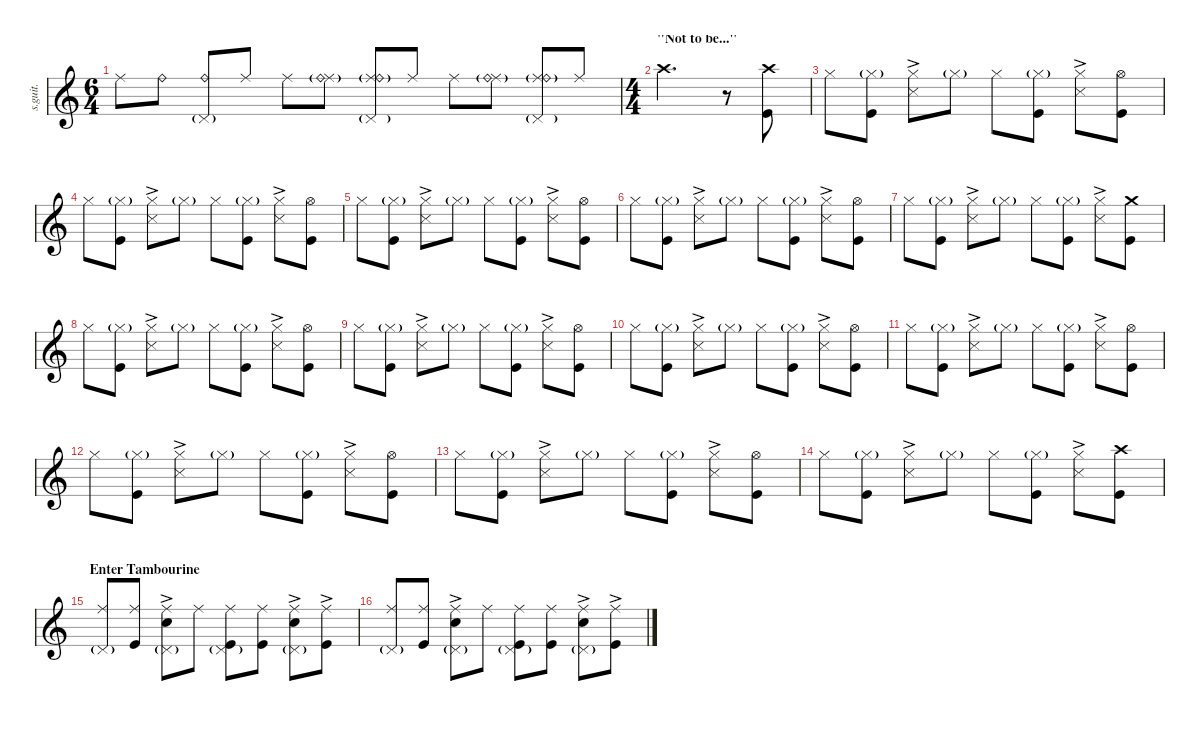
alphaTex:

\defaultSystemsLayout 4
\hideDynamics
\bracketExtendMode nobrackets
\track ("Steve Lamos" "s.guit.") {instrument percussion}
\staff {score}
\articulation defaults
\ts (6 4)
\tempo (144 hide)
\clef g2
\ks c "Ride (middle)".8{lyrics (0 "") lyrics (1 "") lyrics (2 "") lyrics (3 "") lyrics (4 "") dy f} "Ride (bell)".8{lyrics (0 "") lyrics (1 "") lyrics (2 "") lyrics (3 "") lyrics (4 "")}
("Pedal Hi-Hat (hit)"{g} "Ride (bell)").8{lyrics (0 "") lyrics (1 "") lyrics (2 "") lyrics (3 "") lyrics (4 "")} "Ride (middle)".8{lyrics (0 "") lyrics (1 "") lyrics (2 "") lyrics (3 "") lyrics (4 "")} "Ride (middle)".8{lyrics (0 "") lyrics (1 "") lyrics (2 "") lyrics (3 "") lyrics (4 "")} ("Ride (middle)"{g} "Ride (bell)").8{lyrics (0 "") lyrics (1 "") lyrics (2 "") lyrics (3 "") lyrics (4 "")} ("Ride (middle)"{g} "Ride (bell)" "Pedal Hi-Hat (hit)"{g}).8{lyrics (0 "") lyrics (1 "") lyrics (2 "") lyrics (3 "") lyrics (4 "")} "Ride (middle)".8{lyrics (0 "") lyrics (1 "") lyrics (2 "") lyrics (3 "") lyrics (4 "")} "Ride (middle)".8{lyrics (0 "") lyrics (1 "") lyrics (2 "") lyrics (3 "") lyrics (4 "")} ("Ride (middle)"{g} "Ride (bell)").8{lyrics (0 "") lyrics (1 "") lyrics (2 "") lyrics (3 "") lyrics (4 "")} ("Ride (middle)"{g} "Ride (bell)" "Pedal Hi-Hat (hit)"{g}).8{lyrics (0 "") lyrics (1 "") lyrics (2 "") lyrics (3 "") lyrics (4 "")} "Ride (middle)".8{lyrics (0 "") lyrics (1 "") lyrics (2 "") lyrics (3 "") lyrics (4 "")} |
\ts (4 4)
\beaming (8 2 2 2 2)
\section ("" "\"Not to be...\"")
"Crash high (hit)".2{d lyrics (0 "") lyrics (1 "") lyrics (2 "") lyrics (3 "") lyrics (4 "") dy p} r.8 ("Crash high (hit)" "Kick (hit)").8{lyrics (0 "") lyrics (1 "") lyrics (2 "") lyrics (3 "") lyrics (4 "") dy f} |
"Hi-Hat (closed)".8{lyrics (0 "") lyrics (1 "") lyrics (2 "") lyrics (3 "") lyrics (4 "")} ("Hi-Hat (closed)"{g} "Kick (hit)").8{lyrics (0 "") lyrics (1 "") lyrics (2 "") lyrics (3 "") lyrics (4 "")} ("Hi-Hat (closed)" "Snare (side stick) 3"{ac}).8{lyrics (0 "") lyrics (1 "") lyrics (2 "") lyrics (3 "") lyrics (4 "") dy mf} "Hi-Hat (closed)"{g}.8{lyrics (0 "") lyrics (1 "") lyrics (2 "") lyrics (3 "") lyrics (4 "") dy f} "Hi-Hat (closed)".8{lyrics (0 "") lyrics (1 "") lyrics (2 "") lyrics (3 "") lyrics (4 "")} ("Hi-Hat (closed)"{g} "Kick (hit)").8{lyrics (0 "") lyrics (1 "") lyrics (2 "") lyrics (3 "") lyrics (4 "")} ("Hi-Hat (closed)" "Snare (side stick) 3"{ac}).8{lyrics (0 "") lyrics (1 "") lyrics (2 "") lyrics (3 "") lyrics (4 "")} ("Hi-Hat (open)" "Kick (hit)").8{lyrics (0 "") lyrics (1 "") lyrics (2 "") lyrics (3 "") lyrics (4 "")} |
"Hi-Hat (closed)".8{lyrics (0 "") lyrics (1 "") lyrics (2 "") lyrics (3 "") lyrics (4 "")} ("Hi-Hat (closed)"{g} "Kick (hit)").8{lyrics (0 "") lyrics (1 "") lyrics (2 "") lyrics (3 "") lyrics (4 "")} ("Hi-Hat (closed)" "Snare (side stick) 3"{ac}).8{lyrics (0 "") lyrics (1 "") lyrics (2 "") lyrics (3 "") lyrics (4 "")} "Hi-Hat (closed)"{g}.8{lyrics (0 "") lyrics (1 "") lyrics (2 "") lyrics (3 "") lyrics (4 "")} "Hi-Hat (closed)".8{lyrics (0 "") lyrics (1 "") lyrics (2 "") lyrics (3 "") lyrics (4 "")} ("Hi-Hat (closed)"{g} "Kick (hit)").8{lyrics (0 "") lyrics (1 "") lyrics (2 "") lyrics (3 "") lyrics (4 "")} ("Hi-Hat (closed)" "Snare (side stick) 3"{ac}).8{lyrics (0 "") lyrics (1 "") lyrics (2 "") lyrics (3 "") lyrics (4 "")} ("Hi-Hat (open)" "Kick (hit)").8{lyrics (0 "") lyrics (1 "") lyrics (2 "") lyrics (3 "") lyrics (4 "")} |
"Hi-Hat (closed)".8{lyrics (0 "") lyrics (1 "") lyrics (2 "") lyrics (3 "") lyrics (4 "")} ("Hi-Hat (closed)"{g} "Kick (hit)").8{lyrics (0 "") lyrics (1 "") lyrics (2 "") lyrics (3 "") lyrics (4 "")} ("Hi-Hat (closed)" "Snare (side stick) 3"{ac}).8{lyrics (0 "") lyrics (1 "") lyrics (2 "") lyrics (3 "") lyrics (4 "")} "Hi-Hat (closed)"{g}.8{lyrics (0 "") lyrics (1 "") lyrics (2 "") lyrics (3 "") lyrics (4 "")} "Hi-Hat (closed)".8{lyrics (0 "") lyrics (1 "") lyrics (2 "") lyrics (3 "") lyrics (4 "")} ("Hi-Hat (closed)"{g} "Kick (hit)").8{lyrics (0 "") lyrics (1 "") lyrics (2 "") lyrics (3 "") lyrics (4 "")} ("Hi-Hat (closed)" "Snare (side stick) 3"{ac}).8{lyrics (0 "") lyrics (1 "") lyrics (2 "") lyrics (3 "") lyrics (4 "")} ("Hi-Hat (open)" "Kick (hit)").8{lyrics (0 "") lyrics (1 "") lyrics (2 "") lyrics (3 "") lyrics (4 "")} |
"Hi-Hat (closed)".8{lyrics (0 "") lyrics (1 "") lyrics (2 "") lyrics (3 "") lyrics (4 "")} ("Hi-Hat (closed)"{g} "Kick (hit)").8{lyrics (0 "") lyrics (1 "") lyrics (2 "") lyrics (3 "") lyrics (4 "")} ("Hi-Hat (closed)" "Snare (side stick) 3"{ac}).8{lyrics (0 "") lyrics (1 "") lyrics (2 "") lyrics (3 "") lyrics (4 "")} "Hi-Hat (closed)"{g}.8{lyrics (0 "") lyrics (1 "") lyrics (2 "") lyrics (3 "") lyrics (4 "")} "Hi-Hat (closed)".8{lyrics (0 "") lyrics (1 "") lyrics (2 "") lyrics (3 "") lyrics (4 "")} ("Hi-Hat (closed)"{g} "Kick (hit)").8{lyrics (0 "") lyrics (1 "") lyrics (2 "") lyrics (3 "") lyrics (4 "")} ("Hi-Hat (closed)" "Snare (side stick) 3"{ac}).8{lyrics (0 "") lyrics (1 "") lyrics (2 "") lyrics (3 "") lyrics (4 "")} ("Hi-Hat (open)" "Kick (hit)").8{lyrics (0 "") lyrics (1 "") lyrics (2 "") lyrics (3 "") lyrics (4 "")} |
"Hi-Hat (closed)".8{lyrics (0 "") lyrics (1 "") lyrics (2 "") lyrics (3 "") lyrics (4 "")} ("Hi-Hat (closed)"{g} "Kick (hit)").8{lyrics (0 "") lyrics (1 "") lyrics (2 "") lyrics (3 "") lyrics (4 "")} ("Hi-Hat (closed)" "Snare (side stick) 3"{ac}).8{lyrics (0 "") lyrics (1 "") lyrics (2 "") lyrics (3 "") lyrics (4 "")} "Hi-Hat (closed)"{g}.8{lyrics (0 "") lyrics (1 "") lyrics (2 "") lyrics (3 "") lyrics (4 "")} "Hi-Hat (closed)".8{lyrics (0 "") lyrics (1 "") lyrics (2 "") lyrics (3 "") lyrics (4 "")} ("Hi-Hat (closed)"{g} "Kick (hit)").8{lyrics (0 "") lyrics (1 "") lyrics (2 "") lyrics (3 "") lyrics (4 "")} ("Hi-Hat (closed)" "Snare (side stick) 3"{ac}).8{lyrics (0 "") lyrics (1 "") lyrics (2 "") lyrics (3 "") lyrics (4 "")} ("Crash medium (hit)" "Kick (hit)").8{lyrics (0 "") lyrics (1 "") lyrics (2 "") lyrics (3 "") lyrics (4 "")} |
"Hi-Hat (closed)".8{lyrics (0 "") lyrics (1 "") lyrics (2 "") lyrics (3 "") lyrics (4 "")} ("Hi-Hat (closed)"{g} "Kick (hit)").8{lyrics (0 "") lyrics (1 "") lyrics (2 "") lyrics (3 "") lyrics (4 "")} ("Hi-Hat (closed)" "Snare (side stick) 3"{ac}).8{lyrics (0 "") lyrics (1 "") lyrics (2 "") lyrics (3 "") lyrics (4 "")} "Hi-Hat (closed)"{g}.8{lyrics (0 "") lyrics (1 "") lyrics (2 "") lyrics (3 "") lyrics (4 "")} "Hi-Hat (closed)".8{lyrics (0 "") lyrics (1 "") lyrics (2 "") lyrics (3 "") lyrics (4 "")} ("Hi-Hat (closed)"{g} "Kick (hit)").8{lyrics (0 "") lyrics (1 "") lyrics (2 "") lyrics (3 "") lyrics (4 "")} ("Hi-Hat (closed)" "Snare (side stick) 3"{ac}).8{lyrics (0 "") lyrics (1 "") lyrics (2 "") lyrics (3 "") lyrics (4 "")} ("Hi-Hat (open)" "Kick (hit)").8{lyrics (0 "") lyrics (1 "") lyrics (2 "") lyrics (3 "") lyrics (4 "")} |
"Hi-Hat (closed)".8{lyrics (0 "") lyrics (1 "") lyrics (2 "") lyrics (3 "") lyrics (4 "")} ("Hi-Hat (closed)"{g} "Kick (hit)").8{lyrics (0 "") lyrics (1 "") lyrics (2 "") lyrics (3 "") lyrics (4 "")} ("Hi-Hat (closed)" "Snare (side stick) 3"{ac}).8{lyrics (0 "") lyrics (1 "") lyrics (2 "") lyrics (3 "") lyrics (4 "")} "Hi-Hat (closed)"{g}.8{lyrics (0 "") lyrics (1 "") lyrics (2 "") lyrics (3 "") lyrics (4 "")} "Hi-Hat (closed)".8{lyrics (0 "") lyrics (1 "") lyrics (2 "") lyrics (3 "") lyrics (4 "")} ("Hi-Hat (closed)"{g} "Kick (hit)").8{lyrics (0 "") lyrics (1 "") lyrics (2 "") lyrics (3 "") lyrics (4 "")} ("Hi-Hat (closed)" "Snare (side stick) 3"{ac}).8{lyrics (0 "") lyrics (1 "") lyrics (2 "") lyrics (3 "") lyrics (4 "")} ("Hi-Hat (open)" "Kick (hit)").8{lyrics (0 "") lyrics (1 "") lyrics (2 "") lyrics (3 "") lyrics (4 "")} |
"Hi-Hat (closed)".8{lyrics (0 "") lyrics (1 "") lyrics (2 "") lyrics (3 "") lyrics (4 "")} ("Hi-Hat (closed)"{g} "Kick (hit)").8{lyrics (0 "") lyrics (1 "") lyrics (2 "") lyrics (3 "") lyrics (4 "")} ("Hi-Hat (closed)" "Snare (side stick) 3"{ac}).8{lyrics (0 "") lyrics (1 "") lyrics (2 "") lyrics (3 "") lyrics (4 "")} "Hi-Hat (closed)"{g}.8{lyrics (0 "") lyrics (1 "") lyrics (2 "") lyrics (3 "") lyrics (4 "")} "Hi-Hat (closed)".8{lyrics (0 "") lyrics (1 "") lyrics (2 "") lyrics (3 "") lyrics (4 "")} ("Hi-Hat (closed)"{g} "Kick (hit)").8{lyrics (0 "") lyrics (1 "") lyrics (2 "") lyrics (3 "") lyrics (4 "")} ("Hi-Hat (closed)" "Snare (side stick) 3"{ac}).8{lyrics (0 "") lyrics (1 "") lyrics (2 "") lyrics (3 "") lyrics (4 "")} ("Hi-Hat (open)" "Kick (hit)").8{lyrics (0 "") lyrics (1 "") lyrics (2 "") lyrics (3 "") lyrics (4 "")} |
"Hi-Hat (closed)".8{lyrics (0 "") lyrics (1 "") lyrics (2 "") lyrics (3 "") lyrics (4 "")} ("Hi-Hat (closed)"{g} "Kick (hit)").8{lyrics (0 "") lyrics (1 "") lyrics (2 "") lyrics (3 "") lyrics (4 "")} ("Hi-Hat (closed)" "Snare (side stick) 3"{ac}).8{lyrics (0 "") lyrics (1 "") lyrics (2 "") lyrics (3 "") lyrics (4 "")} "Hi-Hat (closed)"{g}.8{lyrics (0 "") lyrics (1 "") lyrics (2 "") lyrics (3 "") lyrics (4 "")} "Hi-Hat (closed)".8{lyrics (0 "") lyrics (1 "") lyrics (2 "") lyrics (3 "") lyrics (4 "")} ("Hi-Hat (closed)"{g} "Kick (hit)").8{lyrics (0 "") lyrics (1 "") lyrics (2 "") lyrics (3 "") lyrics (4 "")} ("Hi-Hat (closed)" "Snare (side stick) 3"{ac}).8{lyrics (0 "") lyrics (1 "") lyrics (2 "") lyrics (3 "") lyrics (4 "")} ("Hi-Hat (open)" "Kick (hit)").8{lyrics (0 "") lyrics (1 "") lyrics (2 "") lyrics (3 "") lyrics (4 "")} |
"Hi-Hat (closed)".8{lyrics (0 "") lyrics (1 "") lyrics (2 "") lyrics (3 "") lyrics (4 "")} ("Hi-Hat (closed)"{g} "Kick (hit)").8{lyrics (0 "") lyrics (1 "") lyrics (2 "") lyrics (3 "") lyrics (4 "")} ("Hi-Hat (closed)" "Snare (side stick) 3"{ac}).8{lyrics (0 "") lyrics (1 "") lyrics (2 "") lyrics (3 "") lyrics (4 "")} "Hi-Hat (closed)"{g}.8{lyrics (0 "") lyrics (1 "") lyrics (2 "") lyrics (3 "") lyrics (4 "")} "Hi-Hat (closed)".8{lyrics (0 "") lyrics (1 "") lyrics (2 "") lyrics (3 "") lyrics (4 "")} ("Hi-Hat (closed)"{g} "Kick (hit)").8{lyrics (0 "") lyrics (1 "") lyrics (2 "") lyrics (3 "") lyrics (4 "")} ("Hi-Hat (closed)" "Snare (side stick) 3"{ac}).8{lyrics (0 "") lyrics (1 "") lyrics (2 "") lyrics (3 "") lyrics (4 "")} ("Hi-Hat (open)" "Kick (hit)").8{lyrics (0 "") lyrics (1 "") lyrics (2 "") lyrics (3 "") lyrics (4 "")} |
"Hi-Hat (closed)".8{lyrics (0 "") lyrics (1 "") lyrics (2 "") lyrics (3 "") lyrics (4 "")} ("Hi-Hat (closed)"{g} "Kick (hit)").8{lyrics (0 "") lyrics (1 "") lyrics (2 "") lyrics (3 "") lyrics (4 "")} ("Hi-Hat (closed)" "Snare (side stick) 3"{ac}).8{lyrics (0 "") lyrics (1 "") lyrics (2 "") lyrics (3 "") lyrics (4 "")} "Hi-Hat (closed)"{g}.8{lyrics (0 "") lyrics (1 "") lyrics (2 "") lyrics (3 "") lyrics (4 "")} "Hi-Hat (closed)".8{lyrics (0 "") lyrics (1 "") lyrics (2 "") lyrics (3 "") lyrics (4 "")} ("Hi-Hat (closed)"{g} "Kick (hit)").8{lyrics (0 "") lyrics (1 "") lyrics (2 "") lyrics (3 "") lyrics (4 "")} ("Hi-Hat (closed)" "Snare (side stick) 3"{ac}).8{lyrics (0 "") lyrics (1 "") lyrics (2 "") lyrics (3 "") lyrics (4 "")} ("Hi-Hat (open)" "Kick (hit)").8{lyrics (0 "") lyrics (1 "") lyrics (2 "") lyrics (3 "") lyrics (4 "")} |
"Hi-Hat (closed)".8{lyrics (0 "") lyrics (1 "") lyrics (2 "") lyrics (3 "") lyrics (4 "")} ("Hi-Hat (closed)"{g} "Kick (hit)").8{lyrics (0 "") lyrics (1 "") lyrics (2 "") lyrics (3 "") lyrics (4 "")} ("Hi-Hat (closed)" "Snare (side stick) 3"{ac}).8{lyrics (0 "") lyrics (1 "") lyrics (2 "") lyrics (3 "") lyrics (4 "")} "Hi-Hat (closed)"{g}.8{lyrics (0 "") lyrics (1 "") lyrics (2 "") lyrics (3 "") lyrics (4 "")} "Hi-Hat (closed)".8{lyrics (0 "") lyrics (1 "") lyrics (2 "") lyrics (3 "") lyrics (4 "")} ("Hi-Hat (closed)"{g} "Kick (hit)").8{lyrics (0 "") lyrics (1 "") lyrics (2 "") lyrics (3 "") lyrics (4 "")} ("Hi-Hat (closed)" "Snare (side stick) 3"{ac}).8{lyrics (0 "") lyrics (1 "") lyrics (2 "") lyrics (3 "") lyrics (4 "")} ("Crash high (hit)" "Kick (hit)").8{lyrics (0 "") lyrics (1 "") lyrics (2 "") lyrics (3 "") lyrics (4 "")} |
\section ("" "Enter Tambourine")
("Pedal Hi-Hat (hit)"{g} "Ride (middle)").8{lyrics (0 "") lyrics (1 "") lyrics (2 "") lyrics (3 "") lyrics (4 "")} ("Ride (middle)" "Kick (hit)").8{lyrics (0 "") lyrics (1 "") lyrics (2 "") lyrics (3 "") lyrics (4 "")} ("Pedal Hi-Hat (hit)"{g} "Ride (middle)" "Snare (hit) 2"{ac}).8{lyrics (0 "") lyrics (1 "") lyrics (2 "") lyrics (3 "") lyrics (4 "")} "Ride (middle)".8{lyrics (0 "") lyrics (1 "") lyrics (2 "") lyrics (3 "") lyrics (4 "")} ("Pedal Hi-Hat (hit)"{g} "Ride (middle)" "Kick (hit)").8{lyrics (0 "") lyrics (1 "") lyrics (2 "") lyrics (3 "") lyrics (4 "")} ("Ride (middle)" "Kick (hit)").8{lyrics (0 "") lyrics (1 "") lyrics (2 "") lyrics (3 "") lyrics (4 "")} ("Pedal Hi-Hat (hit)"{g} "Ride (middle)" "Snare (hit) 2"{ac}).8{lyrics (0 "") lyrics (1 "") lyrics (2 "") lyrics (3 "") lyrics (4 "")} ("Ride (middle)"{ac} "Kick (hit)").8{lyrics (0 "") lyrics (1 "") lyrics (2 "") lyrics (3 "") lyrics (4 "")} |
("Pedal Hi-Hat (hit)"{g} "Ride (middle)").8{lyrics (0 "") lyrics (1 "") lyrics (2 "") lyrics (3 "") lyrics (4 "")} ("Ride (middle)" "Kick (hit)").8{lyrics (0 "") lyrics (1 "") lyrics (2 "") lyrics (3 "") lyrics (4 "")} ("Pedal Hi-Hat (hit)"{g} "Ride (middle)" "Snare (hit) 2"{ac}).8{lyrics (0 "") lyrics (1 "") lyrics (2 "") lyrics (3 "") lyrics (4 "")} "Ride (middle)".8{lyrics (0 "") lyrics (1 "") lyrics (2 "") lyrics (3 "") lyrics (4 "")} ("Pedal Hi-Hat (hit)"{g} "Ride (middle)" "Kick (hit)").8{lyrics (0 "") lyrics (1 "") lyrics (2 "") lyrics (3 "") lyrics (4 "")} ("Ride (middle)" "Kick (hit)").8{lyrics (0 "") lyrics (1 "") lyrics (2 "") lyrics (3 "") lyrics (4 "")} ("Pedal Hi-Hat (hit)"{g} "Ride (middle)" "Snare (hit) 2"{ac}).8{lyrics (0 "") lyrics (1 "") lyrics (2 "") lyrics (3 "") lyrics (4 "")} ("Ride (middle)"{ac} "Kick (hit)").8{lyrics (0 "") lyrics (1 "") lyrics (2 "") lyrics (3 "") lyrics (4 "")}
